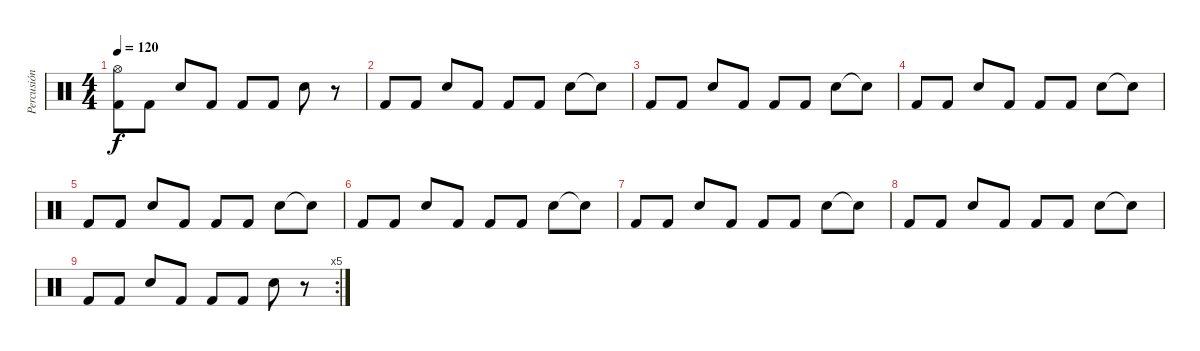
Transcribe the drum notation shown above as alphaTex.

\track ("Percusión" "Percusión") {instrument percussion}
\staff {score}
\articulation defaults
\ts (4 4)
\tempo 120
\clef neutral
\ks c
("Hi-Hat (open)" "Kick (hit) 2").8{dy f} "Kick (hit) 2".8 "Electric Snare (hit)".8 "Kick (hit) 2".8 "Kick (hit) 2".8 "Kick (hit) 2".8 "Electric Snare (hit)".8 r.8 |
"Kick (hit) 2".8 "Kick (hit) 2".8 "Electric Snare (hit)".8 "Kick (hit) 2".8 "Kick (hit) 2".8 "Kick (hit) 2".8 "Electric Snare (hit)".8 "Snare (hit)"{t}.8 |
"Kick (hit) 2".8 "Kick (hit) 2".8 "Electric Snare (hit)".8 "Kick (hit) 2".8 "Kick (hit) 2".8 "Kick (hit) 2".8 "Electric Snare (hit)".8 "Snare (hit)"{t}.8 |
"Kick (hit) 2".8 "Kick (hit) 2".8 "Electric Snare (hit)".8 "Kick (hit) 2".8 "Kick (hit) 2".8 "Kick (hit) 2".8 "Electric Snare (hit)".8 "Snare (hit)"{t}.8 |
"Kick (hit) 2".8 "Kick (hit) 2".8 "Electric Snare (hit)".8 "Kick (hit) 2".8 "Kick (hit) 2".8 "Kick (hit) 2".8 "Electric Snare (hit)".8 "Snare (hit)"{t}.8 |
"Kick (hit) 2".8 "Kick (hit) 2".8 "Electric Snare (hit)".8 "Kick (hit) 2".8 "Kick (hit) 2".8 "Kick (hit) 2".8 "Electric Snare (hit)".8 "Snare (hit)"{t}.8 |
"Kick (hit) 2".8 "Kick (hit) 2".8 "Electric Snare (hit)".8 "Kick (hit) 2".8 "Kick (hit) 2".8 "Kick (hit) 2".8 "Electric Snare (hit)".8 "Snare (hit)"{t}.8 |
"Kick (hit) 2".8 "Kick (hit) 2".8 "Electric Snare (hit)".8 "Kick (hit) 2".8 "Kick (hit) 2".8 "Kick (hit) 2".8 "Electric Snare (hit)".8 "Snare (hit)"{t}.8 |
\rc 5 "Kick (hit) 2".8 "Kick (hit) 2".8 "Electric Snare (hit)".8 "Kick (hit) 2".8 "Kick (hit) 2".8 "Kick (hit) 2".8 "Electric Snare (hit)".8
r.8
